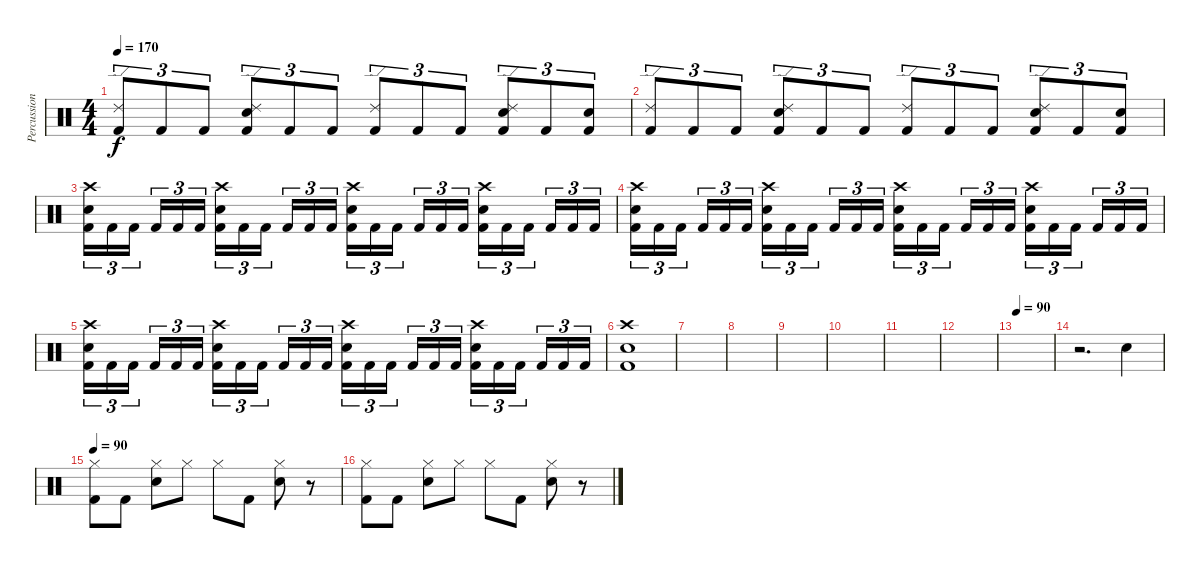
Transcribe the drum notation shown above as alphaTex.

\track ("Percussion" "Percussion") {instrument percussion}
\staff {score}
\articulation defaults
\ts (4 4)
\tempo 170
\clef neutral
\ks c
("Ride (edge) 2" "Kick (hit) 2").8{tu (3 2) dy f} "Kick (hit) 2".8{tu (3 2)} "Kick (hit) 2".8{tu (3 2)} ("Ride (edge) 2" "Electric Snare (hit)" "Kick (hit) 2").8{tu (3 2)} "Kick (hit) 2".8{tu (3 2)} "Kick (hit) 2".8{tu (3 2)} ("Ride (edge) 2" "Kick (hit) 2").8{tu (3 2)} "Kick (hit) 2".8{tu (3 2)} "Kick (hit) 2".8{tu (3 2)} ("Ride (edge) 2" "Electric Snare (hit)" "Kick (hit) 2").8{tu (3 2)} "Kick (hit) 2".8{tu (3 2)} ("Electric Snare (hit)" "Kick (hit) 2").8{tu (3 2)} |
("Ride (edge) 2" "Kick (hit) 2").8{tu (3 2)} "Kick (hit) 2".8{tu (3 2)} "Kick (hit) 2".8{tu (3 2)} ("Ride (edge) 2" "Electric Snare (hit)" "Kick (hit) 2").8{tu (3 2)} "Kick (hit) 2".8{tu (3 2)} "Kick (hit) 2".8{tu (3 2)} ("Ride (edge) 2" "Kick (hit) 2").8{tu (3 2)} "Kick (hit) 2".8{tu (3 2)} "Kick (hit) 2".8{tu (3 2)} ("Ride (edge) 2" "Electric Snare (hit)" "Kick (hit) 2").8{tu (3 2)} "Kick (hit) 2".8{tu (3 2)} ("Electric Snare (hit)" "Kick (hit) 2").8{tu (3 2)} |
("Crash high (hit)" "Electric Snare (hit)" "Kick (hit) 2").16{tu (3 2)} "Kick (hit) 2".16{tu (3 2)} "Kick (hit) 2".16{tu (3 2) beam splitsecondary} "Kick (hit) 2".16{tu (3 2)} "Kick (hit) 2".16{tu (3 2)} "Kick (hit) 2".16{tu (3 2)} ("Crash high (hit)" "Electric Snare (hit)" "Kick (hit) 2").16{tu (3 2)} "Kick (hit) 2".16{tu (3 2)} "Kick (hit) 2".16{tu (3 2) beam splitsecondary} "Kick (hit) 2".16{tu (3 2)} "Kick (hit) 2".16{tu (3 2)} "Kick (hit) 2".16{tu (3 2)} ("Crash high (hit)" "Electric Snare (hit)" "Kick (hit) 2").16{tu (3 2)} "Kick (hit) 2".16{tu (3 2)} "Kick (hit) 2".16{tu (3 2) beam splitsecondary} "Kick (hit) 2".16{tu (3 2)} "Kick (hit) 2".16{tu (3 2)} "Kick (hit) 2".16{tu (3 2)} ("Crash high (hit)" "Electric Snare (hit)" "Kick (hit) 2").16{tu (3 2)} "Kick (hit) 2".16{tu (3 2)} "Kick (hit) 2".16{tu (3 2) beam splitsecondary} "Kick (hit) 2".16{tu (3 2)} "Kick (hit) 2".16{tu (3 2)} "Kick (hit) 2".16{tu (3 2)} |
("Crash high (hit)" "Electric Snare (hit)" "Kick (hit) 2").16{tu (3 2)} "Kick (hit) 2".16{tu (3 2)} "Kick (hit) 2".16{tu (3 2) beam splitsecondary} "Kick (hit) 2".16{tu (3 2)} "Kick (hit) 2".16{tu (3 2)} "Kick (hit) 2".16{tu (3 2)} ("Crash high (hit)" "Electric Snare (hit)" "Kick (hit) 2").16{tu (3 2)} "Kick (hit) 2".16{tu (3 2)} "Kick (hit) 2".16{tu (3 2) beam splitsecondary} "Kick (hit) 2".16{tu (3 2)} "Kick (hit) 2".16{tu (3 2)} "Kick (hit) 2".16{tu (3 2)} ("Crash high (hit)" "Electric Snare (hit)" "Kick (hit) 2").16{tu (3 2)} "Kick (hit) 2".16{tu (3 2)} "Kick (hit) 2".16{tu (3 2) beam splitsecondary} "Kick (hit) 2".16{tu (3 2)} "Kick (hit) 2".16{tu (3 2)} "Kick (hit) 2".16{tu (3 2)} ("Crash high (hit)" "Electric Snare (hit)" "Kick (hit) 2").16{tu (3 2)} "Kick (hit) 2".16{tu (3 2)} "Kick (hit) 2".16{tu (3 2) beam splitsecondary} "Kick (hit) 2".16{tu (3 2)} "Kick (hit) 2".16{tu (3 2)} "Kick (hit) 2".16{tu (3 2)} |
("Crash high (hit)" "Electric Snare (hit)" "Kick (hit) 2").16{tu (3 2)} "Kick (hit) 2".16{tu (3 2)} "Kick (hit) 2".16{tu (3 2) beam splitsecondary} "Kick (hit) 2".16{tu (3 2)} "Kick (hit) 2".16{tu (3 2)} "Kick (hit) 2".16{tu (3 2)} ("Crash high (hit)" "Electric Snare (hit)" "Kick (hit) 2").16{tu (3 2)} "Kick (hit) 2".16{tu (3 2)} "Kick (hit) 2".16{tu (3 2) beam splitsecondary} "Kick (hit) 2".16{tu (3 2)} "Kick (hit) 2".16{tu (3 2)} "Kick (hit) 2".16{tu (3 2)} ("Crash high (hit)" "Electric Snare (hit)" "Kick (hit) 2").16{tu (3 2)} "Kick (hit) 2".16{tu (3 2)} "Kick (hit) 2".16{tu (3 2) beam splitsecondary} "Kick (hit) 2".16{tu (3 2)} "Kick (hit) 2".16{tu (3 2)} "Kick (hit) 2".16{tu (3 2)} ("Crash high (hit)" "Electric Snare (hit)" "Kick (hit) 2").16{tu (3 2)} "Kick (hit) 2".16{tu (3 2)} "Kick (hit) 2".16{tu (3 2) beam splitsecondary} "Kick (hit) 2".16{tu (3 2)} "Kick (hit) 2".16{tu (3 2)} "Kick (hit) 2".16{tu (3 2)} |
("Crash high (hit)" "Electric Snare (hit)" "Kick (hit) 2").1 |
|
|
|
|
|
|
\tempo 90
|
r.2{d} "Electric Snare (hit)".4 |
\tempo 90
("Hi-Hat (closed)" "Kick (hit) 2").8 "Kick (hit) 2".8 ("Hi-Hat (closed)" "Electric Snare (hit)").8 "Hi-Hat (closed)".8 "Hi-Hat (closed)".8 "Kick (hit) 2".8 ("Hi-Hat (closed)" "Electric Snare (hit)").8 r.8 |
("Hi-Hat (closed)" "Kick (hit) 2").8 "Kick (hit) 2".8 ("Hi-Hat (closed)" "Electric Snare (hit)").8 "Hi-Hat (closed)".8 "Hi-Hat (closed)".8 "Kick (hit) 2".8 ("Hi-Hat (closed)" "Electric Snare (hit)").8 r.8
